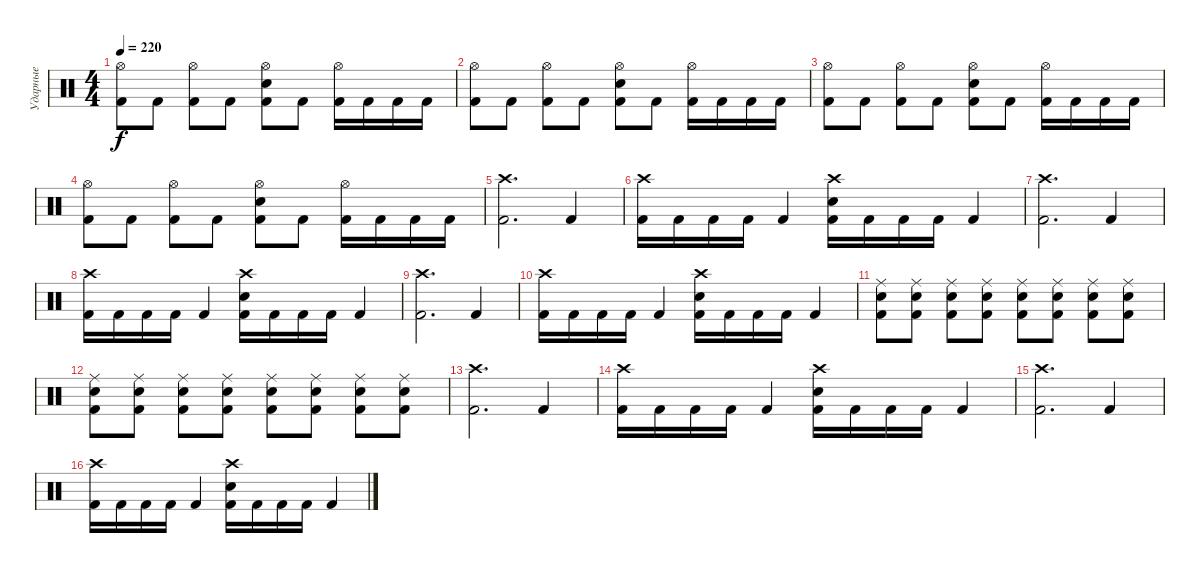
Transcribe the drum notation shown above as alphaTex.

\track ("Ударные" "Ударные") {instrument percussion}
\staff {score}
\articulation defaults
\ts (4 4)
\tempo 220
\clef neutral
\ks c
("Hi-Hat (open)" "Kick (hit) 2").8{dy f} "Kick (hit) 2".8 ("Hi-Hat (open)" "Kick (hit) 2").8 "Kick (hit) 2".8 ("Hi-Hat (open)" "Electric Snare (hit)" "Kick (hit) 2").8 "Kick (hit) 2".8 ("Hi-Hat (open)" "Kick (hit) 2").16 "Kick (hit) 2".16 "Kick (hit) 2".16 "Kick (hit) 2".16 |
("Hi-Hat (open)" "Kick (hit) 2").8 "Kick (hit) 2".8 ("Hi-Hat (open)" "Kick (hit) 2").8 "Kick (hit) 2".8 ("Hi-Hat (open)" "Electric Snare (hit)" "Kick (hit) 2").8 "Kick (hit) 2".8 ("Hi-Hat (open)" "Kick (hit) 2").16 "Kick (hit) 2".16 "Kick (hit) 2".16 "Kick (hit) 2".16 |
("Hi-Hat (open)" "Kick (hit) 2").8 "Kick (hit) 2".8 ("Hi-Hat (open)" "Kick (hit) 2").8 "Kick (hit) 2".8 ("Hi-Hat (open)" "Electric Snare (hit)" "Kick (hit) 2").8 "Kick (hit) 2".8 ("Hi-Hat (open)" "Kick (hit) 2").16 "Kick (hit) 2".16 "Kick (hit) 2".16 "Kick (hit) 2".16 |
("Hi-Hat (open)" "Kick (hit) 2").8 "Kick (hit) 2".8 ("Hi-Hat (open)" "Kick (hit) 2").8 "Kick (hit) 2".8 ("Hi-Hat (open)" "Electric Snare (hit)" "Kick (hit) 2").8 "Kick (hit) 2".8 ("Hi-Hat (open)" "Kick (hit) 2").16 "Kick (hit) 2".16 "Kick (hit) 2".16 "Kick (hit) 2".16 |
("Crash high (hit)" "Kick (hit) 2").2{d} "Kick (hit) 2".4 |
("Crash high (hit)" "Kick (hit) 2").16 "Kick (hit) 2".16 "Kick (hit) 2".16 "Kick (hit) 2".16 "Kick (hit) 2".4 ("Crash high (hit)" "Electric Snare (hit)" "Kick (hit) 2").16 "Kick (hit) 2".16 "Kick (hit) 2".16 "Kick (hit) 2".16 "Kick (hit) 2".4 |
("Crash high (hit)" "Kick (hit) 2").2{d} "Kick (hit) 2".4 |
("Crash high (hit)" "Kick (hit) 2").16 "Kick (hit) 2".16 "Kick (hit) 2".16 "Kick (hit) 2".16 "Kick (hit) 2".4 ("Crash high (hit)" "Electric Snare (hit)" "Kick (hit) 2").16 "Kick (hit) 2".16 "Kick (hit) 2".16 "Kick (hit) 2".16 "Kick (hit) 2".4 |
("Crash high (hit)" "Kick (hit) 2").2{d} "Kick (hit) 2".4 |
("Crash high (hit)" "Kick (hit) 2").16 "Kick (hit) 2".16 "Kick (hit) 2".16 "Kick (hit) 2".16 "Kick (hit) 2".4 ("Crash high (hit)" "Electric Snare (hit)" "Kick (hit) 2").16 "Kick (hit) 2".16 "Kick (hit) 2".16 "Kick (hit) 2".16 "Kick (hit) 2".4 |
("Ride (middle)" "Electric Snare (hit)" "Kick (hit) 2").8 ("Ride (middle)" "Electric Snare (hit)" "Kick (hit) 2").8 ("Ride (middle)" "Electric Snare (hit)" "Kick (hit) 2").8 ("Ride (middle)" "Electric Snare (hit)" "Kick (hit) 2").8 ("Ride (middle)" "Electric Snare (hit)" "Kick (hit) 2").8 ("Ride (middle)" "Electric Snare (hit)" "Kick (hit) 2").8 ("Ride (middle)" "Electric Snare (hit)" "Kick (hit) 2").8 ("Ride (middle)" "Electric Snare (hit)" "Kick (hit) 2").8 |
("Ride (middle)" "Electric Snare (hit)" "Kick (hit) 2").8 ("Ride (middle)" "Electric Snare (hit)" "Kick (hit) 2").8 ("Ride (middle)" "Electric Snare (hit)" "Kick (hit) 2").8 ("Ride (middle)" "Electric Snare (hit)" "Kick (hit) 2").8 ("Ride (middle)" "Electric Snare (hit)" "Kick (hit) 2").8 ("Ride (middle)" "Electric Snare (hit)" "Kick (hit) 2").8 ("Ride (middle)" "Electric Snare (hit)" "Kick (hit) 2").8 ("Ride (middle)" "Electric Snare (hit)" "Kick (hit) 2").8 |
("Crash high (hit)" "Kick (hit) 2").2{d} "Kick (hit) 2".4 |
("Crash high (hit)" "Kick (hit) 2").16 "Kick (hit) 2".16 "Kick (hit) 2".16 "Kick (hit) 2".16 "Kick (hit) 2".4 ("Crash high (hit)" "Electric Snare (hit)" "Kick (hit) 2").16 "Kick (hit) 2".16 "Kick (hit) 2".16 "Kick (hit) 2".16 "Kick (hit) 2".4 |
("Crash high (hit)" "Kick (hit) 2").2{d} "Kick (hit) 2".4 |
("Crash high (hit)" "Kick (hit) 2").16 "Kick (hit) 2".16 "Kick (hit) 2".16 "Kick (hit) 2".16 "Kick (hit) 2".4 ("Crash high (hit)" "Electric Snare (hit)" "Kick (hit) 2").16 "Kick (hit) 2".16 "Kick (hit) 2".16 "Kick (hit) 2".16 "Kick (hit) 2".4
